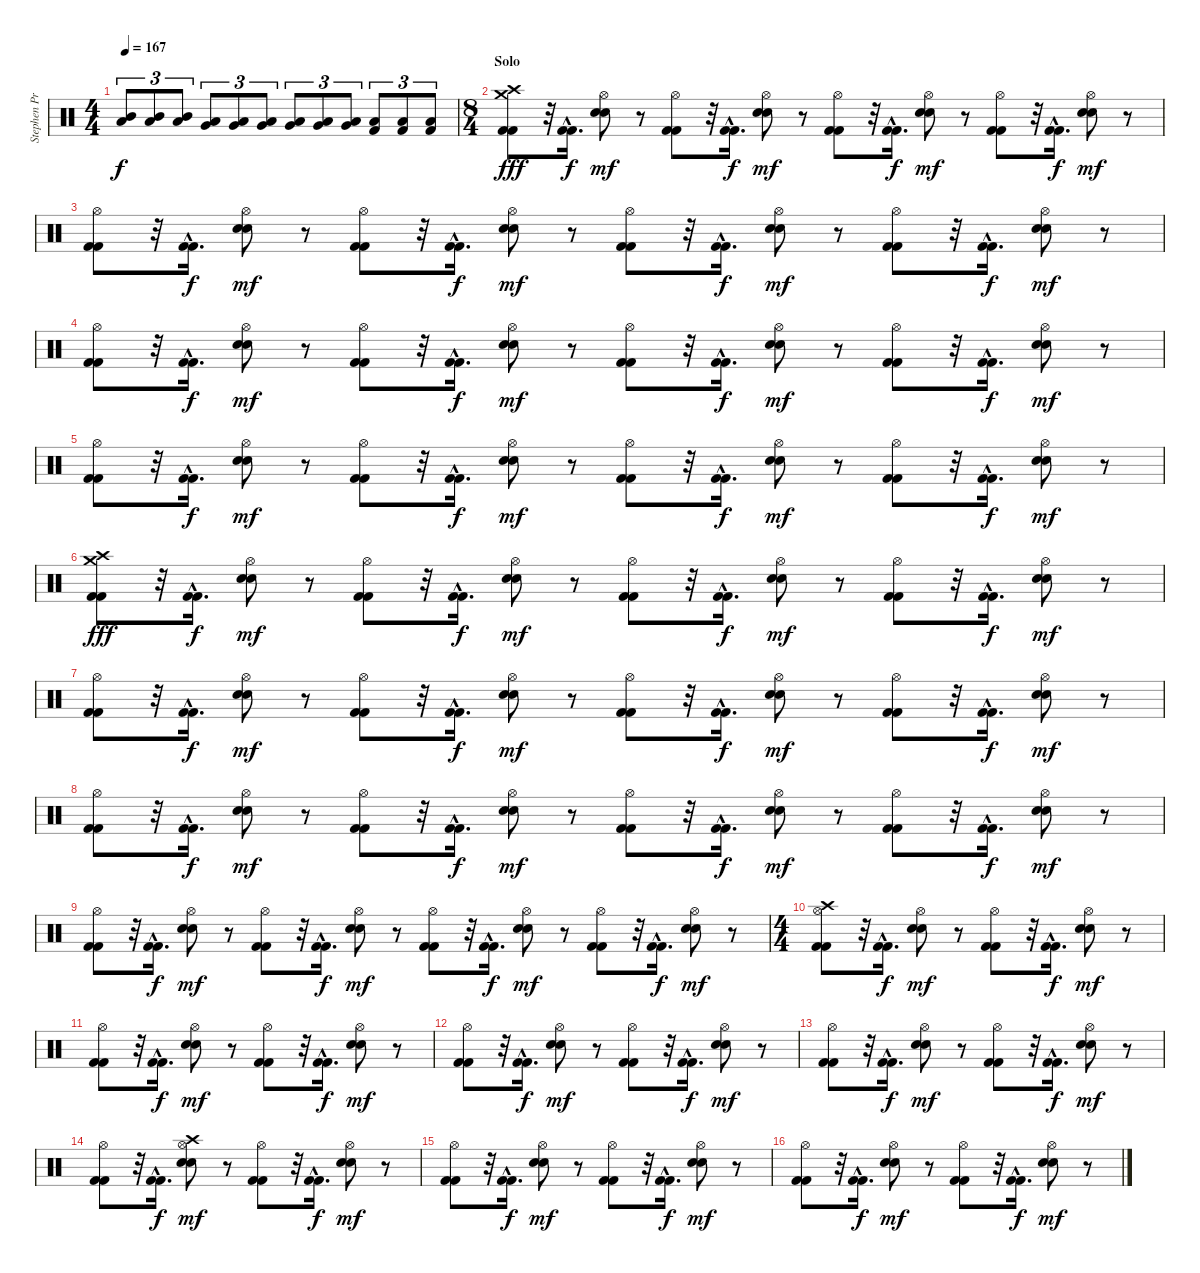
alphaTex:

\track ("Stephen Priestly  (Drums)" "Stephen Pr") {instrument percussion}
\staff {score}
\articulation defaults
\ts (4 4)
\tempo 167
\clef neutral
\ks c
("Mid Tom (hit)" "Low Tom (hit)").8{tu (3 2) dy f} ("Mid Tom (hit)" "Low Tom (hit)").8{tu (3 2)} ("Mid Tom (hit)" "Low Tom (hit)").8{tu (3 2)} ("Low Tom (hit)" "Very Low Tom (hit)").8{tu (3 2)} ("Low Tom (hit)" "Very Low Tom (hit)").8{tu (3 2)} ("Low Tom (hit)" "Very Low Tom (hit)").8{tu (3 2)} ("Very Low Tom (hit)" "Low Floor Tom (hit)").8{tu (3 2)} ("Very Low Tom (hit)" "Low Floor Tom (hit)").8{tu (3 2)} ("Very Low Tom (hit)" "Low Floor Tom (hit)").8{tu (3 2)} ("Low Floor Tom (hit)" "Kick (hit) 2").8{tu (3 2)} ("Low Floor Tom (hit)" "Kick (hit) 2").8{tu (3 2)} ("Low Floor Tom (hit)" "Kick (hit) 2").8{tu (3 2)} |
\ts (8 4)
\section ("" "Solo")
("Crash high (hit)" "Crash medium (hit)" "Kick (hit) 2" "Kick (hit) 2").8{dy fff} r.32 ("Kick (hit) 2"{hac} "Kick (hit) 2"{hac}).16{d dy f} ("Hi-Hat (open)" "Electric Snare (hit)" "Electric Snare (hit)").8{dy mf} r.8 ("Hi-Hat (open)" "Kick (hit) 2" "Kick (hit) 2").8 r.32 ("Kick (hit) 2"{hac} "Kick (hit) 2"{hac}).16{d dy f} ("Hi-Hat (open)" "Electric Snare (hit)" "Electric Snare (hit)").8{dy mf} r.8 ("Hi-Hat (open)" "Kick (hit) 2" "Kick (hit) 2").8 r.32 ("Kick (hit) 2"{hac} "Kick (hit) 2"{hac}).16{d dy f} ("Hi-Hat (open)" "Electric Snare (hit)" "Electric Snare (hit)").8{dy mf} r.8 ("Hi-Hat (open)" "Kick (hit) 2" "Kick (hit) 2").8 r.32 ("Kick (hit) 2"{hac} "Kick (hit) 2"{hac}).16{d dy f} ("Hi-Hat (open)" "Electric Snare (hit)" "Electric Snare (hit)").8{dy mf} r.8 |
("Hi-Hat (open)" "Kick (hit) 2" "Kick (hit) 2").8 r.32 ("Kick (hit) 2"{hac} "Kick (hit) 2"{hac}).16{d dy f} ("Hi-Hat (open)" "Electric Snare (hit)" "Electric Snare (hit)").8{dy mf} r.8 ("Hi-Hat (open)" "Kick (hit) 2" "Kick (hit) 2").8 r.32 ("Kick (hit) 2"{hac} "Kick (hit) 2"{hac}).16{d dy f} ("Hi-Hat (open)" "Electric Snare (hit)" "Electric Snare (hit)").8{dy mf} r.8 ("Hi-Hat (open)" "Kick (hit) 2" "Kick (hit) 2").8 r.32 ("Kick (hit) 2"{hac} "Kick (hit) 2"{hac}).16{d dy f} ("Hi-Hat (open)" "Electric Snare (hit)" "Electric Snare (hit)").8{dy mf} r.8 ("Hi-Hat (open)" "Kick (hit) 2" "Kick (hit) 2").8 r.32 ("Kick (hit) 2"{hac} "Kick (hit) 2"{hac}).16{d dy f} ("Hi-Hat (open)" "Electric Snare (hit)" "Electric Snare (hit)").8{dy mf} r.8 |
("Hi-Hat (open)" "Kick (hit) 2" "Kick (hit) 2").8 r.32 ("Kick (hit) 2"{hac} "Kick (hit) 2"{hac}).16{d dy f} ("Hi-Hat (open)" "Electric Snare (hit)" "Electric Snare (hit)").8{dy mf} r.8 ("Hi-Hat (open)" "Kick (hit) 2" "Kick (hit) 2").8 r.32 ("Kick (hit) 2"{hac} "Kick (hit) 2"{hac}).16{d dy f} ("Hi-Hat (open)" "Electric Snare (hit)" "Electric Snare (hit)").8{dy mf} r.8 ("Hi-Hat (open)" "Kick (hit) 2" "Kick (hit) 2").8 r.32 ("Kick (hit) 2"{hac} "Kick (hit) 2"{hac}).16{d dy f} ("Hi-Hat (open)" "Electric Snare (hit)" "Electric Snare (hit)").8{dy mf} r.8 ("Hi-Hat (open)" "Kick (hit) 2" "Kick (hit) 2").8 r.32 ("Kick (hit) 2"{hac} "Kick (hit) 2"{hac}).16{d dy f} ("Hi-Hat (open)" "Electric Snare (hit)" "Electric Snare (hit)").8{dy mf} r.8 |
("Hi-Hat (open)" "Kick (hit) 2" "Kick (hit) 2").8 r.32 ("Kick (hit) 2"{hac} "Kick (hit) 2"{hac}).16{d dy f} ("Hi-Hat (open)" "Electric Snare (hit)" "Electric Snare (hit)").8{dy mf} r.8 ("Hi-Hat (open)" "Kick (hit) 2" "Kick (hit) 2").8 r.32 ("Kick (hit) 2"{hac} "Kick (hit) 2"{hac}).16{d dy f} ("Hi-Hat (open)" "Electric Snare (hit)" "Electric Snare (hit)").8{dy mf} r.8 ("Hi-Hat (open)" "Kick (hit) 2" "Kick (hit) 2").8 r.32 ("Kick (hit) 2"{hac} "Kick (hit) 2"{hac}).16{d dy f} ("Hi-Hat (open)" "Electric Snare (hit)" "Electric Snare (hit)").8{dy mf} r.8 ("Hi-Hat (open)" "Kick (hit) 2" "Kick (hit) 2").8 r.32 ("Kick (hit) 2"{hac} "Kick (hit) 2"{hac}).16{d dy f} ("Hi-Hat (open)" "Electric Snare (hit)" "Electric Snare (hit)").8{dy mf} r.8 |
("Crash high (hit)" "Crash medium (hit)" "Kick (hit) 2" "Kick (hit) 2").8{dy fff} r.32 ("Kick (hit) 2"{hac} "Kick (hit) 2"{hac}).16{d dy f} ("Hi-Hat (open)" "Electric Snare (hit)" "Electric Snare (hit)").8{dy mf} r.8 ("Hi-Hat (open)" "Kick (hit) 2" "Kick (hit) 2").8 r.32 ("Kick (hit) 2"{hac} "Kick (hit) 2"{hac}).16{d dy f} ("Hi-Hat (open)" "Electric Snare (hit)" "Electric Snare (hit)").8{dy mf} r.8 ("Hi-Hat (open)" "Kick (hit) 2" "Kick (hit) 2").8 r.32 ("Kick (hit) 2"{hac} "Kick (hit) 2"{hac}).16{d dy f} ("Hi-Hat (open)" "Electric Snare (hit)" "Electric Snare (hit)").8{dy mf} r.8 ("Hi-Hat (open)" "Kick (hit) 2" "Kick (hit) 2").8 r.32 ("Kick (hit) 2"{hac} "Kick (hit) 2"{hac}).16{d dy f} ("Hi-Hat (open)" "Electric Snare (hit)" "Electric Snare (hit)").8{dy mf} r.8 |
("Hi-Hat (open)" "Kick (hit) 2" "Kick (hit) 2").8 r.32 ("Kick (hit) 2"{hac} "Kick (hit) 2"{hac}).16{d dy f} ("Hi-Hat (open)" "Electric Snare (hit)" "Electric Snare (hit)").8{dy mf} r.8 ("Hi-Hat (open)" "Kick (hit) 2" "Kick (hit) 2").8 r.32 ("Kick (hit) 2"{hac} "Kick (hit) 2"{hac}).16{d dy f} ("Hi-Hat (open)" "Electric Snare (hit)" "Electric Snare (hit)").8{dy mf} r.8 ("Hi-Hat (open)" "Kick (hit) 2" "Kick (hit) 2").8 r.32 ("Kick (hit) 2"{hac} "Kick (hit) 2"{hac}).16{d dy f} ("Hi-Hat (open)" "Electric Snare (hit)" "Electric Snare (hit)").8{dy mf} r.8 ("Hi-Hat (open)" "Kick (hit) 2" "Kick (hit) 2").8 r.32 ("Kick (hit) 2"{hac} "Kick (hit) 2"{hac}).16{d dy f} ("Hi-Hat (open)" "Electric Snare (hit)" "Electric Snare (hit)").8{dy mf} r.8 |
("Hi-Hat (open)" "Kick (hit) 2" "Kick (hit) 2").8 r.32 ("Kick (hit) 2"{hac} "Kick (hit) 2"{hac}).16{d dy f} ("Hi-Hat (open)" "Electric Snare (hit)" "Electric Snare (hit)").8{dy mf} r.8 ("Hi-Hat (open)" "Kick (hit) 2" "Kick (hit) 2").8 r.32 ("Kick (hit) 2"{hac} "Kick (hit) 2"{hac}).16{d dy f} ("Hi-Hat (open)" "Electric Snare (hit)" "Electric Snare (hit)").8{dy mf} r.8 ("Hi-Hat (open)" "Kick (hit) 2" "Kick (hit) 2").8 r.32 ("Kick (hit) 2"{hac} "Kick (hit) 2"{hac}).16{d dy f} ("Hi-Hat (open)" "Electric Snare (hit)" "Electric Snare (hit)").8{dy mf} r.8 ("Hi-Hat (open)" "Kick (hit) 2" "Kick (hit) 2").8 r.32 ("Kick (hit) 2"{hac} "Kick (hit) 2"{hac}).16{d dy f} ("Hi-Hat (open)" "Electric Snare (hit)" "Electric Snare (hit)").8{dy mf} r.8 |
("Hi-Hat (open)" "Kick (hit) 2" "Kick (hit) 2").8 r.32 ("Kick (hit) 2"{hac} "Kick (hit) 2"{hac}).16{d dy f} ("Hi-Hat (open)" "Electric Snare (hit)" "Electric Snare (hit)").8{dy mf} r.8 ("Hi-Hat (open)" "Kick (hit) 2" "Kick (hit) 2").8 r.32 ("Kick (hit) 2"{hac} "Kick (hit) 2"{hac}).16{d dy f} ("Hi-Hat (open)" "Electric Snare (hit)" "Electric Snare (hit)").8{dy mf} r.8 ("Hi-Hat (open)" "Kick (hit) 2" "Kick (hit) 2").8 r.32 ("Kick (hit) 2"{hac} "Kick (hit) 2"{hac}).16{d dy f} ("Hi-Hat (open)" "Electric Snare (hit)" "Electric Snare (hit)").8{dy mf} r.8 ("Hi-Hat (open)" "Kick (hit) 2" "Kick (hit) 2").8 r.32 ("Kick (hit) 2"{hac} "Kick (hit) 2"{hac}).16{d dy f} ("Hi-Hat (open)" "Electric Snare (hit)" "Electric Snare (hit)").8{dy mf} r.8 |
\ts (4 4)
("Crash high (hit)" "Hi-Hat (open)" "Kick (hit) 2" "Kick (hit) 2").8 r.32 ("Kick (hit) 2"{hac} "Kick (hit) 2"{hac}).16{d dy f} ("Hi-Hat (open)" "Electric Snare (hit)" "Electric Snare (hit)").8{dy mf} r.8 ("Hi-Hat (open)" "Kick (hit) 2" "Kick (hit) 2").8 r.32 ("Kick (hit) 2"{hac} "Kick (hit) 2"{hac}).16{d dy f} ("Hi-Hat (open)" "Electric Snare (hit)" "Electric Snare (hit)").8{dy mf} r.8 |
("Hi-Hat (open)" "Kick (hit) 2" "Kick (hit) 2").8 r.32 ("Kick (hit) 2"{hac} "Kick (hit) 2"{hac}).16{d dy f} ("Hi-Hat (open)" "Electric Snare (hit)" "Electric Snare (hit)").8{dy mf} r.8 ("Hi-Hat (open)" "Kick (hit) 2" "Kick (hit) 2").8 r.32 ("Kick (hit) 2"{hac} "Kick (hit) 2"{hac}).16{d dy f} ("Hi-Hat (open)" "Electric Snare (hit)" "Electric Snare (hit)").8{dy mf} r.8 |
("Hi-Hat (open)" "Kick (hit) 2" "Kick (hit) 2").8 r.32 ("Kick (hit) 2"{hac} "Kick (hit) 2"{hac}).16{d dy f} ("Hi-Hat (open)" "Electric Snare (hit)" "Electric Snare (hit)").8{dy mf} r.8 ("Hi-Hat (open)" "Kick (hit) 2" "Kick (hit) 2").8 r.32 ("Kick (hit) 2"{hac} "Kick (hit) 2"{hac}).16{d dy f} ("Hi-Hat (open)" "Electric Snare (hit)" "Electric Snare (hit)").8{dy mf} r.8 |
("Hi-Hat (open)" "Kick (hit) 2" "Kick (hit) 2").8 r.32 ("Kick (hit) 2"{hac} "Kick (hit) 2"{hac}).16{d dy f} ("Hi-Hat (open)" "Electric Snare (hit)" "Electric Snare (hit)").8{dy mf} r.8 ("Hi-Hat (open)" "Kick (hit) 2" "Kick (hit) 2").8 r.32 ("Kick (hit) 2"{hac} "Kick (hit) 2"{hac}).16{d dy f} ("Hi-Hat (open)" "Electric Snare (hit)" "Electric Snare (hit)").8{dy mf} r.8 |
("Hi-Hat (open)" "Kick (hit) 2" "Kick (hit) 2").8 r.32 ("Kick (hit) 2"{hac} "Kick (hit) 2"{hac}).16{d dy f} ("Crash high (hit)" "Hi-Hat (open)" "Electric Snare (hit)" "Electric Snare (hit)").8{dy mf} r.8 ("Hi-Hat (open)" "Kick (hit) 2" "Kick (hit) 2").8 r.32 ("Kick (hit) 2"{hac} "Kick (hit) 2"{hac}).16{d dy f} ("Hi-Hat (open)" "Electric Snare (hit)" "Electric Snare (hit)").8{dy mf} r.8 |
("Hi-Hat (open)" "Kick (hit) 2" "Kick (hit) 2").8 r.32 ("Kick (hit) 2"{hac} "Kick (hit) 2"{hac}).16{d dy f} ("Hi-Hat (open)" "Electric Snare (hit)" "Electric Snare (hit)").8{dy mf} r.8 ("Hi-Hat (open)" "Kick (hit) 2" "Kick (hit) 2").8 r.32 ("Kick (hit) 2"{hac} "Kick (hit) 2"{hac}).16{d dy f} ("Hi-Hat (open)" "Electric Snare (hit)" "Electric Snare (hit)").8{dy mf} r.8 |
("Hi-Hat (open)" "Kick (hit) 2" "Kick (hit) 2").8 r.32 ("Kick (hit) 2"{hac} "Kick (hit) 2"{hac}).16{d dy f} ("Hi-Hat (open)" "Electric Snare (hit)" "Electric Snare (hit)").8{dy mf} r.8 ("Hi-Hat (open)" "Kick (hit) 2" "Kick (hit) 2").8 r.32 ("Kick (hit) 2"{hac} "Kick (hit) 2"{hac}).16{d dy f} ("Hi-Hat (open)" "Electric Snare (hit)" "Electric Snare (hit)").8{dy mf} r.8
